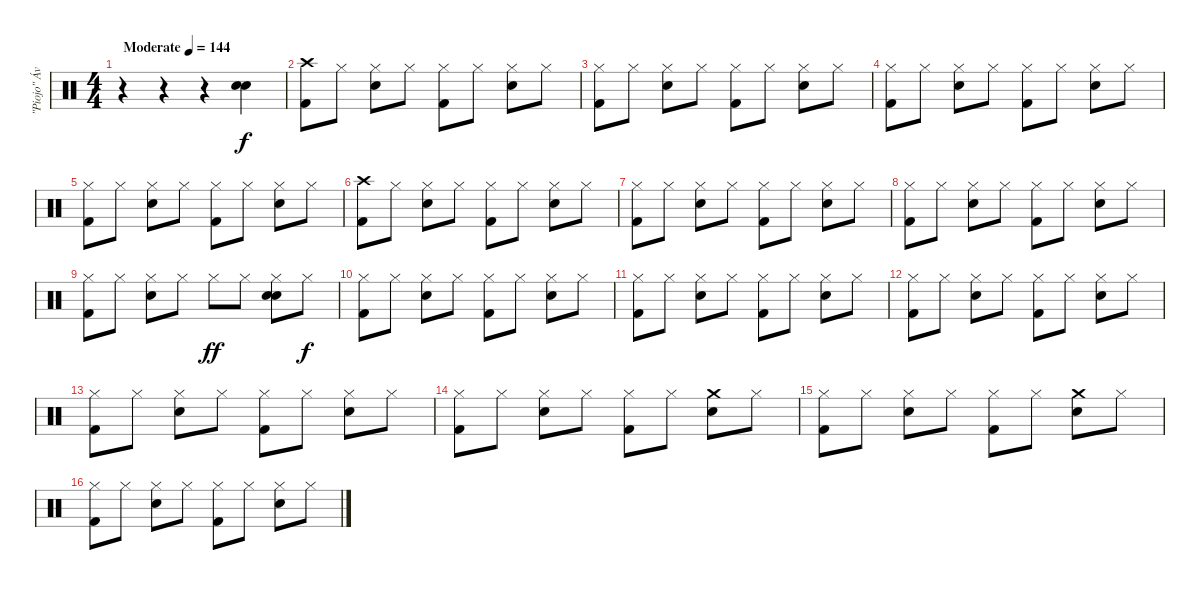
\track ("\"Piojo\" Ávalos" "\"Piojo\" Áv") {instrument percussion}
\staff {score}
\articulation defaults
\ts (4 4)
\tempo (144 "Moderate")
\clef neutral
\ks c
r.4{dy f} r.4 r.4 ("Electric Snare (hit)" "Electric Snare (hit)").4 |
("Crash high (hit)" "Kick (hit) 2").8 "Hi-Hat (closed)".8 ("Hi-Hat (closed)" "Electric Snare (hit)").8 "Hi-Hat (closed)".8 ("Hi-Hat (closed)" "Kick (hit) 2").8 "Hi-Hat (closed)".8 ("Hi-Hat (closed)" "Electric Snare (hit)").8 "Hi-Hat (closed)".8 |
("Hi-Hat (closed)" "Kick (hit) 2").8 "Hi-Hat (closed)".8 ("Hi-Hat (closed)" "Electric Snare (hit)").8 "Hi-Hat (closed)".8 ("Hi-Hat (closed)" "Kick (hit) 2").8 "Hi-Hat (closed)".8 ("Hi-Hat (closed)" "Electric Snare (hit)").8 "Hi-Hat (closed)".8 |
("Hi-Hat (closed)" "Kick (hit) 2").8 "Hi-Hat (closed)".8 ("Hi-Hat (closed)" "Electric Snare (hit)").8 "Hi-Hat (closed)".8 ("Hi-Hat (closed)" "Kick (hit) 2").8 "Hi-Hat (closed)".8 ("Hi-Hat (closed)" "Electric Snare (hit)").8 "Hi-Hat (closed)".8 |
("Hi-Hat (closed)" "Kick (hit) 2").8 "Hi-Hat (closed)".8 ("Hi-Hat (closed)" "Electric Snare (hit)").8 "Hi-Hat (closed)".8 ("Hi-Hat (closed)" "Kick (hit) 2").8 "Hi-Hat (closed)".8 ("Hi-Hat (closed)" "Electric Snare (hit)").8 "Hi-Hat (closed)".8 |
("Crash high (hit)" "Kick (hit) 2").8 "Hi-Hat (closed)".8 ("Hi-Hat (closed)" "Electric Snare (hit)").8 "Hi-Hat (closed)".8 ("Hi-Hat (closed)" "Kick (hit) 2").8 "Hi-Hat (closed)".8 ("Hi-Hat (closed)" "Electric Snare (hit)").8 "Hi-Hat (closed)".8 |
("Hi-Hat (closed)" "Kick (hit) 2").8 "Hi-Hat (closed)".8 ("Hi-Hat (closed)" "Electric Snare (hit)").8 "Hi-Hat (closed)".8 ("Hi-Hat (closed)" "Kick (hit) 2").8 "Hi-Hat (closed)".8 ("Hi-Hat (closed)" "Electric Snare (hit)").8 "Hi-Hat (closed)".8 |
("Hi-Hat (closed)" "Kick (hit) 2").8 "Hi-Hat (closed)".8 ("Hi-Hat (closed)" "Electric Snare (hit)").8 "Hi-Hat (closed)".8 ("Hi-Hat (closed)" "Kick (hit) 2").8 "Hi-Hat (closed)".8 ("Hi-Hat (closed)" "Electric Snare (hit)").8 "Hi-Hat (closed)".8 |
("Hi-Hat (closed)" "Kick (hit) 2").8 "Hi-Hat (closed)".8 ("Hi-Hat (closed)" "Electric Snare (hit)").8 "Hi-Hat (closed)".8 "Hi-Hat (closed)".8{dy ff} "Hi-Hat (closed)".8 ("Hi-Hat (closed)" "Electric Snare (hit)" "Electric Snare (hit)").8 "Hi-Hat (closed)".8{dy f} |
("Hi-Hat (closed)" "Kick (hit) 2").8 "Hi-Hat (closed)".8 ("Hi-Hat (closed)" "Electric Snare (hit)").8 "Hi-Hat (closed)".8 ("Hi-Hat (closed)" "Kick (hit) 2").8 "Hi-Hat (closed)".8 ("Hi-Hat (closed)" "Electric Snare (hit)").8 "Hi-Hat (closed)".8 |
("Hi-Hat (closed)" "Kick (hit) 2").8 "Hi-Hat (closed)".8 ("Hi-Hat (closed)" "Electric Snare (hit)").8 "Hi-Hat (closed)".8 ("Hi-Hat (closed)" "Kick (hit) 2").8 "Hi-Hat (closed)".8 ("Hi-Hat (closed)" "Electric Snare (hit)").8 "Hi-Hat (closed)".8 |
("Hi-Hat (closed)" "Kick (hit) 2").8 "Hi-Hat (closed)".8 ("Hi-Hat (closed)" "Electric Snare (hit)").8 "Hi-Hat (closed)".8 ("Hi-Hat (closed)" "Kick (hit) 2").8 "Hi-Hat (closed)".8 ("Hi-Hat (closed)" "Electric Snare (hit)").8 "Hi-Hat (closed)".8 |
("Hi-Hat (closed)" "Kick (hit) 2").8 "Hi-Hat (closed)".8 ("Hi-Hat (closed)" "Electric Snare (hit)").8 "Hi-Hat (closed)".8 ("Hi-Hat (closed)" "Kick (hit) 2").8 "Hi-Hat (closed)".8 ("Hi-Hat (closed)" "Electric Snare (hit)").8 "Hi-Hat (closed)".8 |
("Hi-Hat (closed)" "Kick (hit) 2").8 "Hi-Hat (closed)".8 ("Hi-Hat (closed)" "Electric Snare (hit)").8 "Hi-Hat (closed)".8 ("Hi-Hat (closed)" "Kick (hit) 2").8 "Hi-Hat (closed)".8 ("Crash medium (hit)" "Electric Snare (hit)").8 "Hi-Hat (closed)".8 |
("Hi-Hat (closed)" "Kick (hit) 2").8 "Hi-Hat (closed)".8 ("Hi-Hat (closed)" "Electric Snare (hit)").8 "Hi-Hat (closed)".8 ("Hi-Hat (closed)" "Kick (hit) 2").8 "Hi-Hat (closed)".8 ("Crash medium (hit)" "Electric Snare (hit)").8 "Hi-Hat (closed)".8 |
("Hi-Hat (closed)" "Kick (hit) 2").8 "Hi-Hat (closed)".8 ("Hi-Hat (closed)" "Electric Snare (hit)").8 "Hi-Hat (closed)".8 ("Hi-Hat (closed)" "Kick (hit) 2").8 "Hi-Hat (closed)".8 ("Hi-Hat (closed)" "Electric Snare (hit)").8 "Hi-Hat (closed)".8
